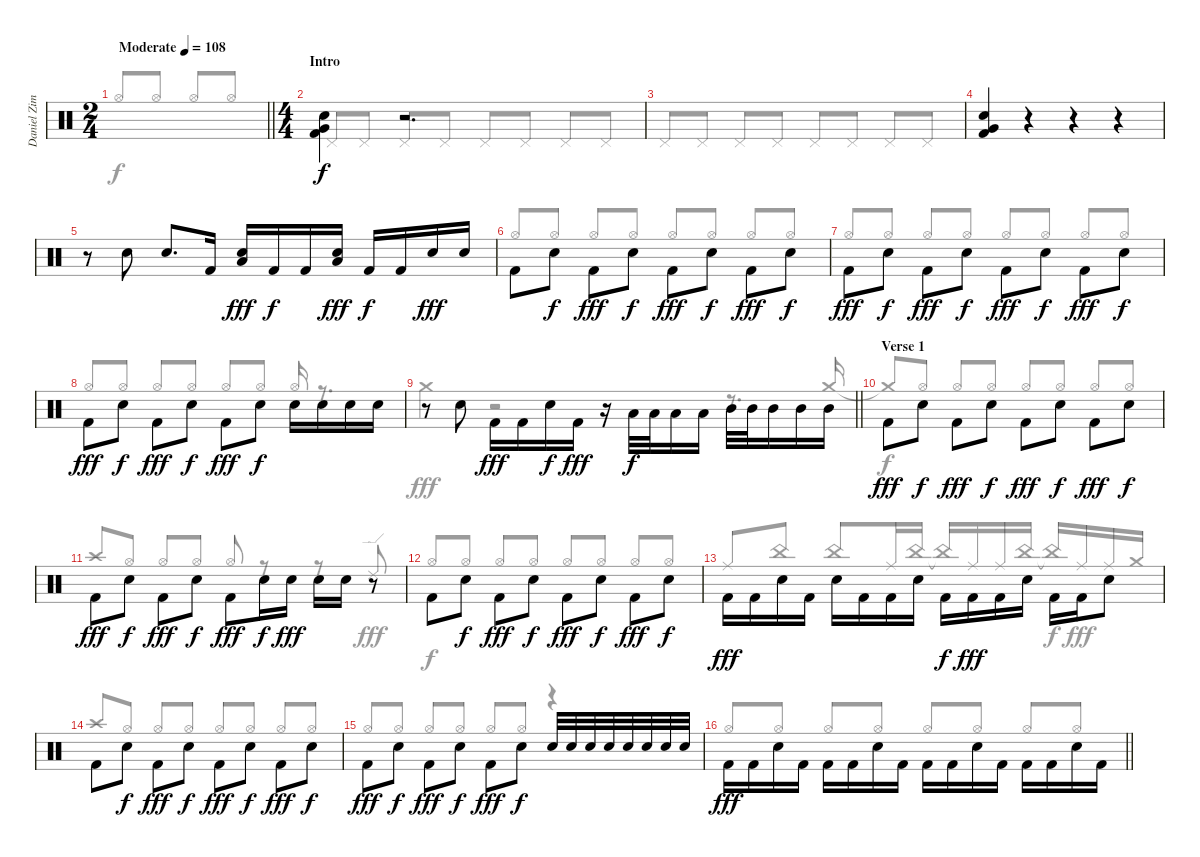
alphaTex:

\track ("Daniel Zimmermann Drums" "Daniel Zim") {instrument percussion}
\staff {score}
\articulation defaults
\voice
\ts (2 4)
\tempo (108 "Moderate")
\clef neutral
\barLineRight lightlight
\ks c
|
\ts (4 4)
\section ("" "Intro")
("Very Low Tom (hit)" "Snare (hit) 2" "Kick (hit) 2").4{beam Down} r.2{d} |
|
("Very Low Tom (hit)" "Snare (hit) 2" "Kick (hit) 2").4 r.4 r.4 r.4 |
r.8 "Snare (hit) 2".8 "Snare (hit) 2".8{d} "Kick (hit) 2".16 ("Low Tom (hit)" "Snare (hit) 2").16{dy fff} "Kick (hit) 2".16{dy f} "Kick (hit) 2".16 ("Low Tom (hit)" "Snare (hit) 2").16{dy fff} "Kick (hit) 2".16{dy f} "Kick (hit) 2".16 "Snare (hit) 2".16{dy fff} "Snare (hit) 2".16 |
"Kick (hit) 2".8{beam Down} "Snare (hit) 2".8{dy f beam Down} "Kick (hit) 2".8{dy fff beam Down} "Snare (hit) 2".8{dy f beam Down} "Kick (hit) 2".8{dy fff beam Down} "Snare (hit) 2".8{dy f beam Down} "Kick (hit) 2".8{dy fff beam Down} "Snare (hit) 2".8{dy f beam Down} |
"Kick (hit) 2".8{dy fff beam Down} "Snare (hit) 2".8{dy f beam Down} "Kick (hit) 2".8{dy fff beam Down} "Snare (hit) 2".8{dy f beam Down} "Kick (hit) 2".8{dy fff beam Down} "Snare (hit) 2".8{dy f beam Down} "Kick (hit) 2".8{dy fff beam Down} "Snare (hit) 2".8{dy f beam Down} |
"Kick (hit) 2".8{dy fff beam Down} "Snare (hit) 2".8{dy f beam Down} "Kick (hit) 2".8{dy fff beam Down} "Snare (hit) 2".8{dy f beam Down} "Kick (hit) 2".8{dy fff beam Down} "Snare (hit) 2".8{dy f beam Down} "Snare (hit) 2".16{beam Down} "Snare (hit) 2".16{beam Down} "Snare (hit) 2".16{beam Down} "Snare (hit) 2".16{beam Down} |
\barLineRight lightlight
r.8 "Snare (hit) 2".8{beam Down} "Kick (hit) 2".16{dy fff beam Down} "Kick (hit) 2".16{beam Down} "Snare (hit) 2".16{dy f beam Down} "Kick (hit) 2".16{dy fff beam Down} r.16 "Low Tom (hit)".32{dy f beam Down} "Low Tom (hit)".32{beam Down} "Low Tom (hit)".16{beam Down} "Low Tom (hit)".16{beam Down} "Mid Tom (hit)".32{beam Down} "Mid Tom (hit)".32{beam Down} "Mid Tom (hit)".16{beam Down} "Mid Tom (hit)".16{beam Down} "Mid Tom (hit)".16{beam Down} |
\section ("" "Verse 1")
"Kick (hit) 2".8{dy fff beam Down} "Snare (hit) 2".8{dy f beam Down} "Kick (hit) 2".8{dy fff beam Down} "Snare (hit) 2".8{dy f beam Down} "Kick (hit) 2".8{dy fff beam Down} "Snare (hit) 2".8{dy f beam Down} "Kick (hit) 2".8{dy fff beam Down} "Snare (hit) 2".8{dy f beam Down} |
"Kick (hit) 2".8{dy fff beam Down} "Snare (hit) 2".8{dy f beam Down} "Kick (hit) 2".8{dy fff beam Down} "Snare (hit) 2".8{dy f beam Down} "Kick (hit) 2".8{dy fff beam Down} "Snare (hit) 2".16{dy f beam Down} "Snare (hit) 2".16{dy fff beam Down} "Snare (hit) 2".16{beam Down} "Snare (hit) 2".16{beam Down} r.8 |
"Kick (hit) 2".8{beam Down} "Snare (hit) 2".8{dy f beam Down} "Kick (hit) 2".8{dy fff beam Down} "Snare (hit) 2".8{dy f beam Down} "Kick (hit) 2".8{dy fff beam Down} "Snare (hit) 2".8{dy f beam Down} "Kick (hit) 2".8{dy fff beam Down} "Snare (hit) 2".8{dy f beam Down} |
"Kick (hit) 2".16{dy fff beam Down} "Kick (hit) 2".16{beam Down} "Snare (hit) 2".16{beam Down} "Kick (hit) 2".16{beam Down} "Snare (hit) 2".16{beam Down} "Kick (hit) 2".16{beam Down} "Kick (hit) 2".16{beam Down} "Snare (hit) 2".16{beam Down} "Kick (hit) 2".16{dy f beam Down} "Kick (hit) 2".16{dy fff beam Down} "Kick (hit) 2".16{beam Down} "Snare (hit) 2".16{beam Down} "Kick (hit) 2".16{beam Down} "Kick (hit) 2".16{beam Down} "Snare (hit) 2".8{beam Down} |
"Kick (hit) 2".8{beam Down} "Snare (hit) 2".8{dy f beam Down} "Kick (hit) 2".8{dy fff beam Down} "Snare (hit) 2".8{dy f beam Down} "Kick (hit) 2".8{dy fff beam Down} "Snare (hit) 2".8{dy f beam Down} "Kick (hit) 2".8{dy fff beam Down} "Snare (hit) 2".8{dy f beam Down} |
"Kick (hit) 2".8{dy fff beam Down} "Snare (hit) 2".8{dy f beam Down} "Kick (hit) 2".8{dy fff beam Down} "Snare (hit) 2".8{dy f beam Down} "Kick (hit) 2".8{dy fff beam Down} "Snare (hit) 2".8{dy f beam Down} "Snare (hit) 2".32 "Snare (hit) 2".32 "Snare (hit) 2".32 "Snare (hit) 2".32 "Snare (hit) 2".32 "Snare (hit) 2".32 "Snare (hit) 2".32 "Snare (hit) 2".32 |
\barLineRight lightlight "Kick (hit) 2".16{dy fff beam Down} "Kick (hit) 2".16{beam Down} "Snare (hit) 2".16{beam Down} "Kick (hit) 2".16{beam Down} "Kick (hit) 2".16{beam Down} "Kick (hit) 2".16{beam Down} "Snare (hit) 2".16{beam Down} "Kick (hit) 2".16{beam Down} "Kick (hit) 2".16{beam Down} "Kick (hit) 2".16{beam Down} "Snare (hit) 2".16{beam Down} "Kick (hit) 2".16{beam Down} "Kick (hit) 2".16{beam Down} "Kick (hit) 2".16{beam Down} "Snare (hit) 2".16{beam Down} "Kick (hit) 2".16{beam Down}
\voice
\clef neutral
\ottava regular
\simile none
\barLineRight lightlight
\ks c "Hi-Hat (open)".8{dy f beam Up} "Hi-Hat (open)".8{beam Up} "Hi-Hat (open)".8{beam Up} "Hi-Hat (open)".8{beam Up}
|
"Pedal Hi-Hat (hit)".8{beam Up} "Pedal Hi-Hat (hit)".8{beam Up} "Pedal Hi-Hat (hit)".8{beam Up} "Pedal Hi-Hat (hit)".8{beam Up} "Pedal Hi-Hat (hit)".8{beam Up} "Pedal Hi-Hat (hit)".8{beam Up} "Pedal Hi-Hat (hit)".8{beam Up} "Pedal Hi-Hat (hit)".8{beam Up} |
"Pedal Hi-Hat (hit)".8{beam Up} "Pedal Hi-Hat (hit)".8{beam Up} "Pedal Hi-Hat (hit)".8{beam Up} "Pedal Hi-Hat (hit)".8{beam Up} "Pedal Hi-Hat (hit)".8{beam Up} "Pedal Hi-Hat (hit)".8{beam Up} "Pedal Hi-Hat (hit)".8{beam Up} "Pedal Hi-Hat (hit)".8{beam Up} |
|
|
"Hi-Hat (open)".8{beam Up} "Hi-Hat (open)".8{beam Up} "Hi-Hat (open)".8{beam Up} "Hi-Hat (open)".8{beam Up} "Hi-Hat (open)".8{beam Up} "Hi-Hat (open)".8{beam Up} "Hi-Hat (open)".8{beam Up} "Hi-Hat (open)".8{beam Up} |
"Hi-Hat (open)".8{beam Up} "Hi-Hat (open)".8{beam Up} "Hi-Hat (open)".8{beam Up} "Hi-Hat (open)".8{beam Up} "Hi-Hat (open)".8{beam Up} "Hi-Hat (open)".8{beam Up} "Hi-Hat (open)".8{beam Up} "Hi-Hat (open)".8{beam Up} |
"Hi-Hat (open)".8{beam Up} "Hi-Hat (open)".8{beam Up} "Hi-Hat (open)".8{beam Up} "Hi-Hat (open)".8{beam Up} "Hi-Hat (open)".8{beam Up} "Hi-Hat (open)".8{beam Up} "Hi-Hat (open)".16{beam Up} r.8{d} |
\barLineRight lightlight "Crash medium (hit)".4{dy fff}
r.2 r.8{d} "Crash medium (hit)".16{beam Up} |
"Crash medium (hit)"{t}.8{dy f beam Up} "Hi-Hat (open)".8{beam Up} "Hi-Hat (open)".8{beam Up} "Hi-Hat (open)".8{beam Up} "Hi-Hat (open)".8{beam Up} "Hi-Hat (open)".8{beam Up} "Hi-Hat (open)".8{beam Up} "Hi-Hat (open)".8{beam Up} |
"Crash high (hit)".8{dy fff beam Up} "Hi-Hat (open)".8{dy f beam Up} "Hi-Hat (open)".8{beam Up} "Hi-Hat (open)".8{beam Up} "Hi-Hat (open)".8{beam Up} r.8{beam Up} r.8 "Ride (edge) 2".8{dy fff beam Up} |
"Hi-Hat (open)".8{dy f beam Up} "Hi-Hat (open)".8{beam Up} "Hi-Hat (open)".8{beam Up} "Hi-Hat (open)".8{beam Up} "Hi-Hat (open)".8{beam Up} "Hi-Hat (open)".8{beam Up} "Hi-Hat (open)".8{beam Up} "Hi-Hat (open)".8{beam Up} |
"Ride (middle)".8{dy fff beam Up} "China (hit)".8{beam Up} "China (hit)".8{beam Up} "Ride (middle)".16{beam Up} "China (hit)".16{beam Up} "China (hit)"{t}.16{dy f beam Up} "Ride (middle)".16{dy fff beam Up} "Ride (middle)".16{beam Up} "China (hit)".16{beam Up} "China (hit)"{t}.16{dy f beam Up} "Ride (middle)".16{dy fff beam Up} "Ride (middle)".16{beam Up} "Crash medium (hit)".16{beam Up} |
"Crash high (hit)".8{beam Up} "Hi-Hat (open)".8{beam Up} "Hi-Hat (open)".8{beam Up} "Hi-Hat (open)".8{beam Up} "Hi-Hat (open)".8{beam Up} "Hi-Hat (open)".8{beam Up} "Hi-Hat (open)".8{beam Up} "Hi-Hat (open)".8{beam Up} |
"Hi-Hat (open)".8{beam Up} "Hi-Hat (open)".8{beam Up} "Hi-Hat (open)".8{beam Up} "Hi-Hat (open)".8{beam Up} "Hi-Hat (open)".8{beam Up} "Hi-Hat (open)".8{beam Up} r.4 |
\barLineRight lightlight "Hi-Hat (open)".8{beam Up} "Hi-Hat (open)".8{beam Up} "Hi-Hat (open)".8{beam Up} "Hi-Hat (open)".8{beam Up} "Hi-Hat (open)".8{beam Up} "Hi-Hat (open)".8{beam Up} "Hi-Hat (open)".8{beam Up} "Hi-Hat (open)".8{beam Up}
